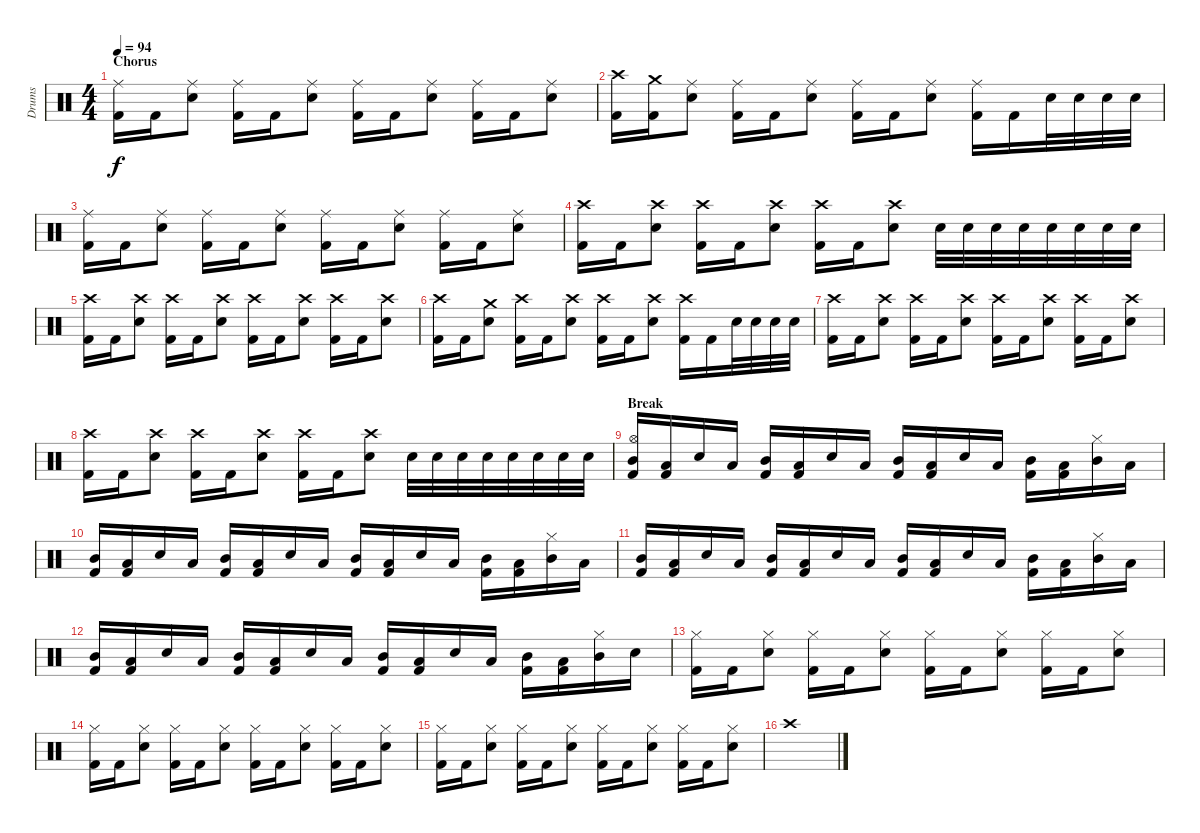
\track ("Drums" "Drums") {instrument percussion}
\staff {score}
\articulation defaults
\ts (4 4)
\section ("" "Chorus")
\tempo 94
\clef neutral
\ks c
("Ride (middle)" "Kick (hit) 2").16{dy f} "Kick (hit) 2".16 ("Ride (middle)" "Electric Snare (hit)").8 ("Ride (middle)" "Kick (hit) 2").16 "Kick (hit) 2".16 ("Ride (middle)" "Electric Snare (hit)").8 ("Ride (middle)" "Kick (hit) 2").16 "Kick (hit) 2".16 ("Ride (middle)" "Electric Snare (hit)").8 ("Ride (middle)" "Kick (hit) 2").16 "Kick (hit) 2".16 ("Ride (middle)" "Electric Snare (hit)").8 |
("Crash high (hit)" "Kick (hit) 2").16 ("Crash medium (hit)" "Kick (hit) 2").16 ("Ride (middle)" "Electric Snare (hit)").8 ("Ride (middle)" "Kick (hit) 2").16 "Kick (hit) 2".16 ("Ride (middle)" "Electric Snare (hit)").8 ("Ride (middle)" "Kick (hit) 2").16 "Kick (hit) 2".16 ("Ride (middle)" "Electric Snare (hit)").8 ("Ride (middle)" "Kick (hit) 2").16 "Kick (hit) 2".16 "Electric Snare (hit)".32 "Electric Snare (hit)".32 "Electric Snare (hit)".32 "Electric Snare (hit)".32 |
("Ride (middle)" "Kick (hit) 2").16 "Kick (hit) 2".16 ("Ride (middle)" "Electric Snare (hit)").8 ("Ride (middle)" "Kick (hit) 2").16 "Kick (hit) 2".16 ("Ride (middle)" "Electric Snare (hit)").8 ("Ride (middle)" "Kick (hit) 2").16 "Kick (hit) 2".16 ("Ride (middle)" "Electric Snare (hit)").8 ("Ride (middle)" "Kick (hit) 2").16 "Kick (hit) 2".16 ("Ride (middle)" "Electric Snare (hit)").8 |
("Crash high (hit)" "Kick (hit) 2").16 "Kick (hit) 2".16 ("Crash high (hit)" "Electric Snare (hit)").8 ("Crash high (hit)" "Kick (hit) 2").16 "Kick (hit) 2".16 ("Crash high (hit)" "Electric Snare (hit)").8 ("Crash high (hit)" "Kick (hit) 2").16 "Kick (hit) 2".16 ("Crash high (hit)" "Electric Snare (hit)").8 "Electric Snare (hit)".32 "Electric Snare (hit)".32 "Electric Snare (hit)".32 "Electric Snare (hit)".32 "Electric Snare (hit)".32 "Electric Snare (hit)".32 "Electric Snare (hit)".32 "Electric Snare (hit)".32 |
("Crash high (hit)" "Kick (hit) 2").16 "Kick (hit) 2".16 ("Crash high (hit)" "Electric Snare (hit)").8 ("Crash high (hit)" "Kick (hit) 2").16 "Kick (hit) 2".16 ("Crash high (hit)" "Electric Snare (hit)").8 ("Crash high (hit)" "Kick (hit) 2").16 "Kick (hit) 2".16 ("Crash high (hit)" "Electric Snare (hit)").8 ("Crash high (hit)" "Kick (hit) 2").16 "Kick (hit) 2".16 ("Crash high (hit)" "Electric Snare (hit)").8 |
("Crash high (hit)" "Kick (hit) 2").16 "Kick (hit) 2".16 ("Crash medium (hit)" "Electric Snare (hit)").8 ("Crash high (hit)" "Kick (hit) 2").16 "Kick (hit) 2".16 ("Crash high (hit)" "Electric Snare (hit)").8 ("Crash high (hit)" "Kick (hit) 2").16 "Kick (hit) 2".16 ("Crash high (hit)" "Electric Snare (hit)").8 ("Crash high (hit)" "Kick (hit) 2").16 "Kick (hit) 2".16 "Electric Snare (hit)".32 "Electric Snare (hit)".32 "Electric Snare (hit)".32 "Electric Snare (hit)".32 |
("Crash high (hit)" "Kick (hit) 2").16 "Kick (hit) 2".16 ("Crash high (hit)" "Electric Snare (hit)").8 ("Crash high (hit)" "Kick (hit) 2").16 "Kick (hit) 2".16 ("Crash high (hit)" "Electric Snare (hit)").8 ("Crash high (hit)" "Kick (hit) 2").16 "Kick (hit) 2".16 ("Crash high (hit)" "Electric Snare (hit)").8 ("Crash high (hit)" "Kick (hit) 2").16 "Kick (hit) 2".16 ("Crash high (hit)" "Electric Snare (hit)").8 |
("Crash high (hit)" "Kick (hit) 2").16 "Kick (hit) 2".16 ("Crash high (hit)" "Electric Snare (hit)").8 ("Crash high (hit)" "Kick (hit) 2").16 "Kick (hit) 2".16 ("Crash high (hit)" "Electric Snare (hit)").8 ("Crash high (hit)" "Kick (hit) 2").16 "Kick (hit) 2".16 ("Crash high (hit)" "Electric Snare (hit)").8 "Electric Snare (hit)".32 "Electric Snare (hit)".32 "Electric Snare (hit)".32 "Electric Snare (hit)".32 "Electric Snare (hit)".32 "Electric Snare (hit)".32 "Electric Snare (hit)".32 "Electric Snare (hit)".32 |
\section ("" "Break")
("Hi-Hat (open)" "Mid Tom (hit)" "Kick (hit) 2").16 ("Low Tom (hit)" "Kick (hit) 2").16 "Electric Snare (hit)".16 "Low Tom (hit)".16 ("Mid Tom (hit)" "Kick (hit) 2").16 ("Low Tom (hit)" "Kick (hit) 2").16 "Electric Snare (hit)".16 "Low Tom (hit)".16 ("Mid Tom (hit)" "Kick (hit) 2").16 ("Low Tom (hit)" "Kick (hit) 2").16 "Electric Snare (hit)".16 "Low Tom (hit)".16 ("Mid Tom (hit)" "Kick (hit) 2").16 ("Low Tom (hit)" "Kick (hit) 2").16 ("Hi-Hat (closed)" "Mid Tom (hit)").16 "Low Tom (hit)".16 |
("Mid Tom (hit)" "Kick (hit) 2").16 ("Low Tom (hit)" "Kick (hit) 2").16 "Electric Snare (hit)".16 "Low Tom (hit)".16 ("Mid Tom (hit)" "Kick (hit) 2").16 ("Low Tom (hit)" "Kick (hit) 2").16 "Electric Snare (hit)".16 "Low Tom (hit)".16 ("Mid Tom (hit)" "Kick (hit) 2").16 ("Low Tom (hit)" "Kick (hit) 2").16 "Electric Snare (hit)".16 "Low Tom (hit)".16 ("Mid Tom (hit)" "Kick (hit) 2").16 ("Low Tom (hit)" "Kick (hit) 2").16 ("Hi-Hat (closed)" "Mid Tom (hit)").16 "Low Tom (hit)".16 |
("Mid Tom (hit)" "Kick (hit) 2").16 ("Low Tom (hit)" "Kick (hit) 2").16 "Electric Snare (hit)".16 "Low Tom (hit)".16 ("Mid Tom (hit)" "Kick (hit) 2").16 ("Low Tom (hit)" "Kick (hit) 2").16 "Electric Snare (hit)".16 "Low Tom (hit)".16 ("Mid Tom (hit)" "Kick (hit) 2").16 ("Low Tom (hit)" "Kick (hit) 2").16 "Electric Snare (hit)".16 "Low Tom (hit)".16 ("Mid Tom (hit)" "Kick (hit) 2").16 ("Low Tom (hit)" "Kick (hit) 2").16 ("Hi-Hat (closed)" "Mid Tom (hit)").16 "Low Tom (hit)".16 |
("Mid Tom (hit)" "Kick (hit) 2").16 ("Low Tom (hit)" "Kick (hit) 2").16 "Electric Snare (hit)".16 "Low Tom (hit)".16 ("Mid Tom (hit)" "Kick (hit) 2").16 ("Low Tom (hit)" "Kick (hit) 2").16 "Electric Snare (hit)".16 "Low Tom (hit)".16 ("Mid Tom (hit)" "Kick (hit) 2").16 ("Low Tom (hit)" "Kick (hit) 2").16 "Electric Snare (hit)".16 "Low Tom (hit)".16 ("Mid Tom (hit)" "Kick (hit) 2").16 ("Low Tom (hit)" "Kick (hit) 2").16 ("Hi-Hat (closed)" "Mid Tom (hit)").16 "Electric Snare (hit)".16 |
("Hi-Hat (closed)" "Kick (hit) 2").16 "Kick (hit) 2".16 ("Hi-Hat (closed)" "Electric Snare (hit)").8 ("Hi-Hat (closed)" "Kick (hit) 2").16 "Kick (hit) 2".16 ("Hi-Hat (closed)" "Electric Snare (hit)").8 ("Hi-Hat (closed)" "Kick (hit) 2").16 "Kick (hit) 2".16 ("Hi-Hat (closed)" "Electric Snare (hit)").8 ("Hi-Hat (closed)" "Kick (hit) 2").16 "Kick (hit) 2".16 ("Hi-Hat (closed)" "Electric Snare (hit)").8 |
("Hi-Hat (closed)" "Kick (hit) 2").16 "Kick (hit) 2".16 ("Hi-Hat (closed)" "Electric Snare (hit)").8 ("Hi-Hat (closed)" "Kick (hit) 2").16 "Kick (hit) 2".16 ("Hi-Hat (closed)" "Electric Snare (hit)").8 ("Hi-Hat (closed)" "Kick (hit) 2").16 "Kick (hit) 2".16 ("Hi-Hat (closed)" "Electric Snare (hit)").8 ("Hi-Hat (closed)" "Kick (hit) 2").16 "Kick (hit) 2".16 ("Hi-Hat (closed)" "Electric Snare (hit)").8 |
("Hi-Hat (closed)" "Kick (hit) 2").16 "Kick (hit) 2".16 ("Hi-Hat (closed)" "Electric Snare (hit)").8 ("Hi-Hat (closed)" "Kick (hit) 2").16 "Kick (hit) 2".16 ("Hi-Hat (closed)" "Electric Snare (hit)").8 ("Hi-Hat (closed)" "Kick (hit) 2").16 "Kick (hit) 2".16 ("Hi-Hat (closed)" "Electric Snare (hit)").8 ("Hi-Hat (closed)" "Kick (hit) 2").16 "Kick (hit) 2".16 ("Hi-Hat (closed)" "Electric Snare (hit)").8 |
"Crash high (hit)".1
